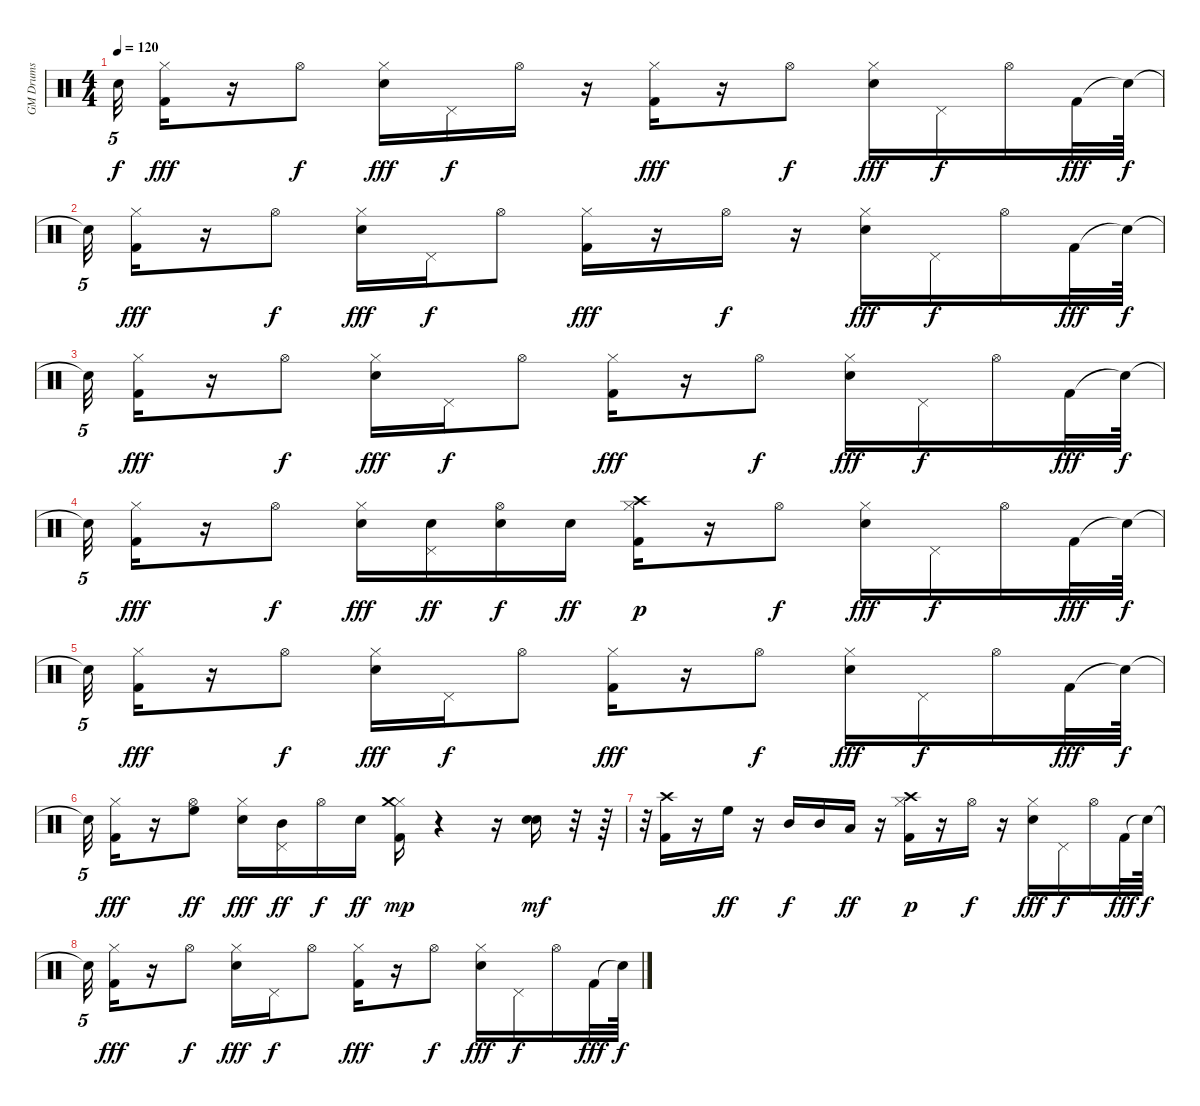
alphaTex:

\track ("GM Drums" "GM Drums") {instrument percussion}
\staff {score}
\articulation defaults
\ts (4 4)
\tempo 120
\clef neutral
\ks c "Snare (hit)"{t}.32{tu (5 4) dy f}
("Kick (hit) 2" "Hi-Hat (closed)").16{dy fff} r.16 "Hi-Hat (open)".8{dy f} ("Electric Snare (hit)" "Hi-Hat (closed)").16{dy fff} "Pedal Hi-Hat (hit)".16{dy f} "Hi-Hat (open)".16 r.16 ("Kick (hit) 2" "Hi-Hat (closed)").16{dy fff} r.16 "Hi-Hat (open)".8{dy f} ("Electric Snare (hit)" "Hi-Hat (closed)").16{dy fff} "Pedal Hi-Hat (hit)".16{dy f} "Hi-Hat (open)".16 "Kick (hit) 2".32{dy fff} "Snare (hit)"{t}.64{dy f} |
"Snare (hit)"{t}.32{tu (5 4)} ("Kick (hit) 2" "Hi-Hat (closed)").16{dy fff} r.16 "Hi-Hat (open)".8{dy f} ("Electric Snare (hit)" "Hi-Hat (closed)").16{dy fff} "Pedal Hi-Hat (hit)".16{dy f} "Hi-Hat (open)".8 ("Kick (hit) 2" "Hi-Hat (closed)").16{dy fff} r.16 "Hi-Hat (open)".16{dy f} r.16 ("Electric Snare (hit)" "Hi-Hat (closed)").16{dy fff} "Pedal Hi-Hat (hit)".16{dy f} "Hi-Hat (open)".16 "Kick (hit) 2".32{dy fff} "Snare (hit)"{t}.64{dy f} |
"Snare (hit)"{t}.32{tu (5 4)} ("Kick (hit) 2" "Hi-Hat (closed)").16{dy fff} r.16 "Hi-Hat (open)".8{dy f} ("Electric Snare (hit)" "Hi-Hat (closed)").16{dy fff} "Pedal Hi-Hat (hit)".16{dy f} "Hi-Hat (open)".8 ("Kick (hit) 2" "Hi-Hat (closed)").16{dy fff} r.16 "Hi-Hat (open)".8{dy f} ("Electric Snare (hit)" "Hi-Hat (closed)").16{dy fff} "Pedal Hi-Hat (hit)".16{dy f} "Hi-Hat (open)".16 "Kick (hit) 2".32{dy fff} "Snare (hit)"{t}.64{dy f} |
"Snare (hit)"{t}.32{tu (5 4)} ("Kick (hit) 2" "Hi-Hat (closed)").16{dy fff} r.16 "Hi-Hat (open)".8{dy f} ("Electric Snare (hit)" "Hi-Hat (closed)").16{dy fff} ("Electric Snare (hit)" "Pedal Hi-Hat (hit)").16{dy ff} ("Electric Snare (hit)" "Hi-Hat (open)").16{dy f} "Electric Snare (hit)".16{dy ff} ("Kick (hit) 2" "Hi-Hat (closed)" "Crash high (hit)").16{dy p} r.16 "Hi-Hat (open)".8{dy f} ("Electric Snare (hit)" "Hi-Hat (closed)").16{dy fff} "Pedal Hi-Hat (hit)".16{dy f} "Hi-Hat (open)".16 "Kick (hit) 2".32{dy fff} "Snare (hit)"{t}.64{dy f} |
"Snare (hit)"{t}.32{tu (5 4)} ("Kick (hit) 2" "Hi-Hat (closed)").16{dy fff} r.16 "Hi-Hat (open)".8{dy f} ("Electric Snare (hit)" "Hi-Hat (closed)").16{dy fff} "Pedal Hi-Hat (hit)".16{dy f} "Hi-Hat (open)".8 ("Kick (hit) 2" "Hi-Hat (closed)").16{dy fff} r.16 "Hi-Hat (open)".8{dy f} ("Electric Snare (hit)" "Hi-Hat (closed)").16{dy fff} "Pedal Hi-Hat (hit)".16{dy f} "Hi-Hat (open)".16 "Kick (hit) 2".32{dy fff} "Snare (hit)"{t}.64{dy f} |
"Snare (hit)"{t}.32{tu (5 4)} ("Kick (hit) 2" "Hi-Hat (closed)").16{dy fff} r.16 ("Hi-Hat (open)" "High Floor Tom (hit)").8{dy ff} ("Electric Snare (hit)" "Hi-Hat (closed)").16{dy fff} ("Pedal Hi-Hat (hit)" "Mid Tom (hit)").16{dy ff} "Hi-Hat (open)".16{dy f} "Electric Snare (hit)".16{dy ff} ("Kick (hit) 2" "Hi-Hat (closed)" "Crash medium (hit)").16{dy mp} r.4 r.16 ("Electric Snare (hit)" "Electric Snare (hit)").16{dy mf} r.32 r.64 |
r.32{tu (5 4)} ("Kick (hit) 2" "Crash high (hit)").16 r.16 "High Floor Tom (hit)".16{dy ff} r.16 "Mid Tom (hit)".16{dy f} "Mid Tom (hit)".16 "Low Tom (hit)".16{dy ff} r.16 ("Kick (hit) 2" "Hi-Hat (closed)" "Crash high (hit)").16{dy p} r.16 "Hi-Hat (open)".16{dy f} r.16 ("Electric Snare (hit)" "Hi-Hat (closed)").16{dy fff} "Pedal Hi-Hat (hit)".16{dy f} "Hi-Hat (open)".16 "Kick (hit) 2".32{dy fff} "Snare (hit)"{t}.64{dy f} |
"Snare (hit)"{t}.32{tu (5 4)} ("Kick (hit) 2" "Hi-Hat (closed)").16{dy fff} r.16 "Hi-Hat (open)".8{dy f} ("Electric Snare (hit)" "Hi-Hat (closed)").16{dy fff} "Pedal Hi-Hat (hit)".16{dy f} "Hi-Hat (open)".8 ("Kick (hit) 2" "Hi-Hat (closed)").16{dy fff} r.16 "Hi-Hat (open)".8{dy f} ("Electric Snare (hit)" "Hi-Hat (closed)").16{dy fff} "Pedal Hi-Hat (hit)".16{dy f} "Hi-Hat (open)".16 "Kick (hit) 2".32{dy fff} "Snare (hit)"{t}.64{dy f}
